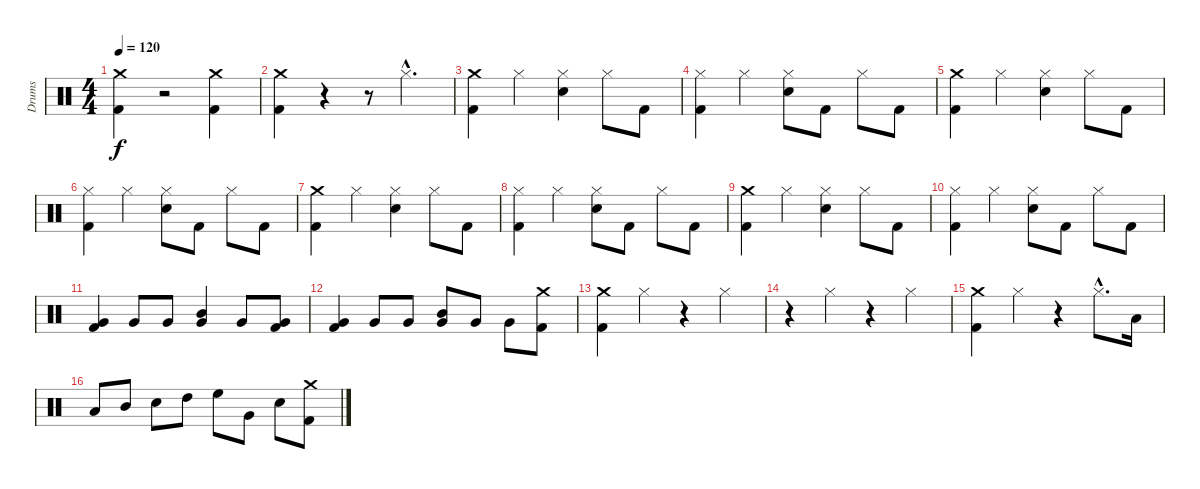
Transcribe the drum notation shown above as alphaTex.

\track ("Drums" "Drums") {instrument percussion}
\staff {score}
\articulation defaults
\ts (4 4)
\tempo 120
\clef neutral
\ks c
("Crash medium (hit)" "Kick (hit) 2").4{dy f} r.2 ("Kick (hit) 2" "Crash medium (hit)").4 |
("Crash medium (hit)" "Kick (hit) 2").4 r.4 r.8 "Hi-Hat (closed)"{hac}.4{d} |
("Kick (hit) 2" "Crash medium (hit)").4 "Hi-Hat (closed)".4 ("Snare (hit) 2" "Hi-Hat (closed)").4 "Hi-Hat (closed)".8 "Kick (hit) 2".8 |
("Hi-Hat (closed)" "Kick (hit) 2").4 "Hi-Hat (closed)".4 ("Snare (hit) 2" "Hi-Hat (closed)").8 "Kick (hit) 2".8 "Hi-Hat (closed)".8 "Kick (hit) 2".8 |
("Kick (hit) 2" "Crash medium (hit)").4 "Hi-Hat (closed)".4 ("Snare (hit) 2" "Hi-Hat (closed)").4 "Hi-Hat (closed)".8 "Kick (hit) 2".8 |
("Hi-Hat (closed)" "Kick (hit) 2").4 "Hi-Hat (closed)".4 ("Snare (hit) 2" "Hi-Hat (closed)").8 "Kick (hit) 2".8 "Hi-Hat (closed)".8 "Kick (hit) 2".8 |
("Kick (hit) 2" "Crash medium (hit)").4 "Hi-Hat (closed)".4 ("Snare (hit) 2" "Hi-Hat (closed)").4 "Hi-Hat (closed)".8 "Kick (hit) 2".8 |
("Hi-Hat (closed)" "Kick (hit) 2").4 "Hi-Hat (closed)".4 ("Snare (hit) 2" "Hi-Hat (closed)").8 "Kick (hit) 2".8 "Hi-Hat (closed)".8 "Kick (hit) 2".8 |
("Kick (hit) 2" "Crash medium (hit)").4 "Hi-Hat (closed)".4 ("Snare (hit) 2" "Hi-Hat (closed)").4 "Hi-Hat (closed)".8 "Kick (hit) 2".8 |
("Hi-Hat (closed)" "Kick (hit) 2").4 "Hi-Hat (closed)".4 ("Snare (hit) 2" "Hi-Hat (closed)").8 "Kick (hit) 2".8 "Hi-Hat (closed)".8 "Kick (hit) 2".8 |
("Kick (hit) 2" "Very Low Tom (hit)").4 "Very Low Tom (hit)".8 "Very Low Tom (hit)".8 ("Mid Tom (hit)" "Very Low Tom (hit)").4 "Very Low Tom (hit)".8 ("Kick (hit) 2" "Very Low Tom (hit)").8 |
("Kick (hit) 2" "Very Low Tom (hit)").4 "Very Low Tom (hit)".8 "Very Low Tom (hit)".8 ("Very Low Tom (hit)" "Mid Tom (hit)").8 "Very Low Tom (hit)".8 "Very Low Tom (hit)".8 ("Kick (hit) 2" "Crash medium (hit)").8 |
("Crash medium (hit)" "Kick (hit) 2").4 "Hi-Hat (closed)".4 r.4 "Hi-Hat (closed)".4 |
r.4 "Hi-Hat (closed)".4 r.4 "Hi-Hat (closed)".4 |
("Kick (hit) 2" "Crash medium (hit)").4 "Hi-Hat (closed)".4 r.4 "Hi-Hat (closed)"{hac}.8{d} "Low Tom (hit)".16 |
"Low Tom (hit)".8 "Mid Tom (hit)".8 "Snare (hit) 2".8 "High Tom (hit)".8 "High Floor Tom (hit)".8 "Very Low Tom (hit)".8 "Snare (hit) 2".8 ("Crash medium (hit)" "Kick (hit) 2").8
